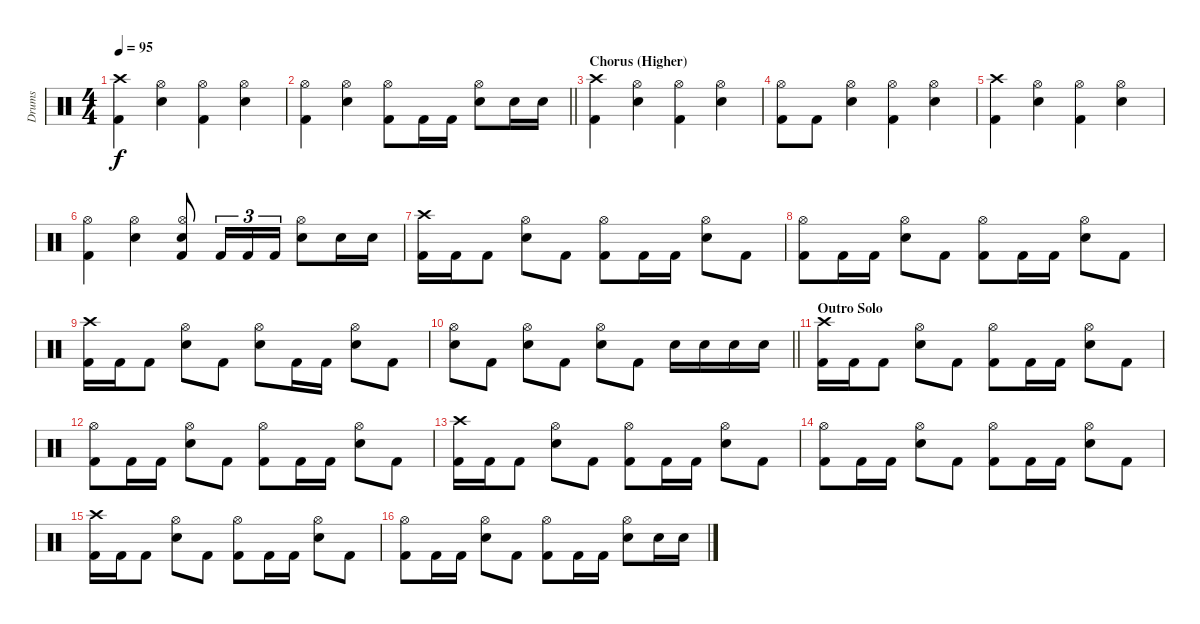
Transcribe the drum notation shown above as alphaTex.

\track ("Drums" "Drums") {instrument percussion}
\staff {score}
\articulation defaults
\ts (4 4)
\tempo 95
\clef neutral
\ks c
("Crash high (hit)" "Kick (hit) 2").4{dy f} ("Hi-Hat (open)" "Electric Snare (hit)").4 ("Hi-Hat (open)" "Kick (hit) 2").4 ("Hi-Hat (open)" "Electric Snare (hit)").4 |
\barLineRight lightlight
("Hi-Hat (open)" "Kick (hit) 2").4 ("Hi-Hat (open)" "Electric Snare (hit)").4 ("Hi-Hat (open)" "Kick (hit) 2").8 "Kick (hit) 2".16 "Kick (hit) 2".16 ("Hi-Hat (open)" "Electric Snare (hit)").8 "Electric Snare (hit)".16 "Electric Snare (hit)".16 |
\section ("" "Chorus (Higher)")
("Crash high (hit)" "Kick (hit) 2").4 ("Hi-Hat (open)" "Electric Snare (hit)").4 ("Hi-Hat (open)" "Kick (hit) 2").4 ("Hi-Hat (open)" "Electric Snare (hit)").4 |
("Hi-Hat (open)" "Kick (hit) 2").8 "Kick (hit) 2".8 ("Hi-Hat (open)" "Electric Snare (hit)").4 ("Hi-Hat (open)" "Kick (hit) 2").4 ("Hi-Hat (open)" "Electric Snare (hit)").4 |
("Crash high (hit)" "Kick (hit) 2").4 ("Hi-Hat (open)" "Electric Snare (hit)").4 ("Hi-Hat (open)" "Kick (hit) 2").4 ("Hi-Hat (open)" "Electric Snare (hit)").4 |
("Hi-Hat (open)" "Kick (hit) 2").4 ("Hi-Hat (open)" "Electric Snare (hit)").4 ("Hi-Hat (open)" "Electric Snare (hit)" "Kick (hit) 2").8 "Kick (hit) 2".16{tu (3 2)} "Kick (hit) 2".16{tu (3 2)} "Kick (hit) 2".16{tu (3 2)} ("Hi-Hat (open)" "Electric Snare (hit)").8 "Electric Snare (hit)".16 "Electric Snare (hit)".16 |
("Crash high (hit)" "Kick (hit) 2").16 "Kick (hit) 2".16 "Kick (hit) 2".8 ("Hi-Hat (open)" "Electric Snare (hit)").8 "Kick (hit) 2".8 ("Hi-Hat (open)" "Kick (hit) 2").8 "Kick (hit) 2".16 "Kick (hit) 2".16 ("Hi-Hat (open)" "Electric Snare (hit)").8 "Kick (hit) 2".8 |
("Hi-Hat (open)" "Kick (hit) 2").8 "Kick (hit) 2".16 "Kick (hit) 2".16 ("Hi-Hat (open)" "Electric Snare (hit)").8 "Kick (hit) 2".8 ("Hi-Hat (open)" "Kick (hit) 2").8 "Kick (hit) 2".16 "Kick (hit) 2".16 ("Hi-Hat (open)" "Electric Snare (hit)").8 "Kick (hit) 2".8 |
("Crash high (hit)" "Kick (hit) 2").16 "Kick (hit) 2".16 "Kick (hit) 2".8 ("Hi-Hat (open)" "Electric Snare (hit)").8 "Kick (hit) 2".8 ("Hi-Hat (open)" "Electric Snare (hit)").8 "Kick (hit) 2".16 "Kick (hit) 2".16 ("Hi-Hat (open)" "Electric Snare (hit)").8 "Kick (hit) 2".8 |
\barLineRight lightlight
("Hi-Hat (open)" "Electric Snare (hit)").8 "Kick (hit) 2".8 ("Hi-Hat (open)" "Electric Snare (hit)").8 "Kick (hit) 2".8 ("Hi-Hat (open)" "Electric Snare (hit)").8 "Kick (hit) 2".8 "Electric Snare (hit)".16 "Electric Snare (hit)".16 "Electric Snare (hit)".16 "Electric Snare (hit)".16 |
\section ("" "Outro Solo")
("Crash high (hit)" "Kick (hit) 2").16 "Kick (hit) 2".16 "Kick (hit) 2".8 ("Hi-Hat (open)" "Electric Snare (hit)").8 "Kick (hit) 2".8 ("Hi-Hat (open)" "Kick (hit) 2").8 "Kick (hit) 2".16 "Kick (hit) 2".16 ("Hi-Hat (open)" "Electric Snare (hit)").8 "Kick (hit) 2".8 |
("Hi-Hat (open)" "Kick (hit) 2").8 "Kick (hit) 2".16 "Kick (hit) 2".16 ("Hi-Hat (open)" "Electric Snare (hit)").8 "Kick (hit) 2".8 ("Hi-Hat (open)" "Kick (hit) 2").8 "Kick (hit) 2".16 "Kick (hit) 2".16 ("Hi-Hat (open)" "Electric Snare (hit)").8 "Kick (hit) 2".8 |
("Crash high (hit)" "Kick (hit) 2").16 "Kick (hit) 2".16 "Kick (hit) 2".8 ("Hi-Hat (open)" "Electric Snare (hit)").8 "Kick (hit) 2".8 ("Hi-Hat (open)" "Kick (hit) 2").8 "Kick (hit) 2".16 "Kick (hit) 2".16 ("Hi-Hat (open)" "Electric Snare (hit)").8 "Kick (hit) 2".8 |
("Hi-Hat (open)" "Kick (hit) 2").8 "Kick (hit) 2".16 "Kick (hit) 2".16 ("Hi-Hat (open)" "Electric Snare (hit)").8 "Kick (hit) 2".8 ("Hi-Hat (open)" "Kick (hit) 2").8 "Kick (hit) 2".16 "Kick (hit) 2".16 ("Hi-Hat (open)" "Electric Snare (hit)").8 "Kick (hit) 2".8 |
("Crash high (hit)" "Kick (hit) 2").16 "Kick (hit) 2".16 "Kick (hit) 2".8 ("Hi-Hat (open)" "Electric Snare (hit)").8 "Kick (hit) 2".8 ("Hi-Hat (open)" "Kick (hit) 2").8 "Kick (hit) 2".16 "Kick (hit) 2".16 ("Hi-Hat (open)" "Electric Snare (hit)").8 "Kick (hit) 2".8 |
("Hi-Hat (open)" "Kick (hit) 2").8 "Kick (hit) 2".16 "Kick (hit) 2".16 ("Hi-Hat (open)" "Electric Snare (hit)").8 "Kick (hit) 2".8 ("Hi-Hat (open)" "Kick (hit) 2").8 "Kick (hit) 2".16 "Kick (hit) 2".16 ("Hi-Hat (open)" "Electric Snare (hit)").8 "Electric Snare (hit)".16 "Electric Snare (hit)".16
